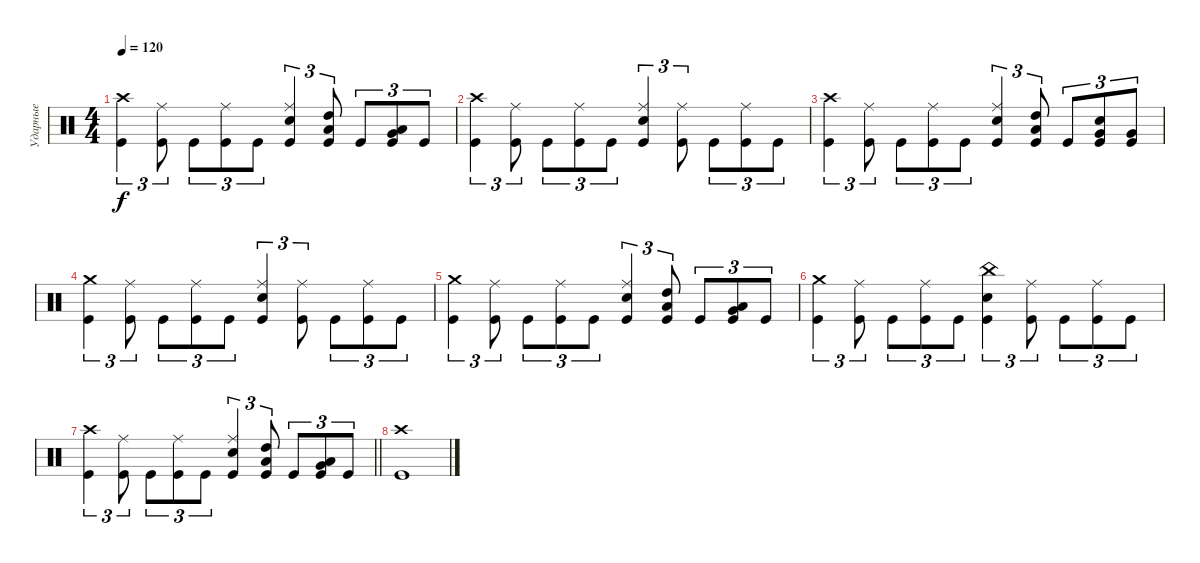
\track ("Ударные" "Ударные") {instrument percussion}
\staff {score}
\articulation defaults
\ts (4 4)
\tempo 120
\clef neutral
\ks c
("Crash high (hit)" "Kick (hit)").4{tu (3 2) dy f} ("Ride (middle)" "Kick (hit)").8{tu (3 2)} "Kick (hit)".8{tu (3 2)} ("Ride (middle)" "Kick (hit)").8{tu (3 2)} "Kick (hit)".8{tu (3 2)} ("Ride (middle)" "Electric Snare (hit)" "Kick (hit)").4{tu (3 2)} ("Low Tom (hit)" "High Tom (hit)" "Kick (hit)").8{tu (3 2)} "Kick (hit)".8{tu (3 2)} ("Very Low Tom (hit)" "Low Tom (hit)" "Kick (hit)").8{tu (3 2)} "Kick (hit)".8{tu (3 2)} |
("Crash high (hit)" "Kick (hit)").4{tu (3 2)} ("Ride (middle)" "Kick (hit)").8{tu (3 2)} "Kick (hit)".8{tu (3 2)} ("Ride (middle)" "Kick (hit)").8{tu (3 2)} "Kick (hit)".8{tu (3 2)} ("Ride (middle)" "Electric Snare (hit)" "Kick (hit)").4{tu (3 2)} ("Ride (middle)" "Kick (hit)").8{tu (3 2)} "Kick (hit)".8{tu (3 2)} ("Ride (middle)" "Kick (hit)").8{tu (3 2)} "Kick (hit)".8{tu (3 2)} |
("Crash high (hit)" "Kick (hit)").4{tu (3 2)} ("Ride (middle)" "Kick (hit)").8{tu (3 2)} "Kick (hit)".8{tu (3 2)} ("Ride (middle)" "Kick (hit)").8{tu (3 2)} "Kick (hit)".8{tu (3 2)} ("Ride (middle)" "Electric Snare (hit)" "Kick (hit)").4{tu (3 2)} ("Low Tom (hit)" "High Tom (hit)" "Kick (hit)").8{tu (3 2)} "Kick (hit)".8{tu (3 2)} ("Very Low Tom (hit)" "Electric Snare (hit)" "Kick (hit)").8{tu (3 2)} ("Very Low Tom (hit)" "Kick (hit)").8{tu (3 2)} |
("Crash medium (hit)" "Kick (hit)").4{tu (3 2)} ("Ride (middle)" "Kick (hit)").8{tu (3 2)} "Kick (hit)".8{tu (3 2)} ("Ride (middle)" "Kick (hit)").8{tu (3 2)} "Kick (hit)".8{tu (3 2)} ("Ride (middle)" "Electric Snare (hit)" "Kick (hit)").4{tu (3 2)} ("Ride (middle)" "Kick (hit)").8{tu (3 2)} "Kick (hit)".8{tu (3 2)} ("Ride (middle)" "Kick (hit)").8{tu (3 2)} "Kick (hit)".8{tu (3 2)} |
("Crash medium (hit)" "Kick (hit)").4{tu (3 2)} ("Ride (middle)" "Kick (hit)").8{tu (3 2)} "Kick (hit)".8{tu (3 2)} ("Ride (middle)" "Kick (hit)").8{tu (3 2)} "Kick (hit)".8{tu (3 2)} ("Ride (middle)" "Electric Snare (hit)" "Kick (hit)").4{tu (3 2)} ("Low Tom (hit)" "High Tom (hit)" "Kick (hit)").8{tu (3 2)} "Kick (hit)".8{tu (3 2)} ("Very Low Tom (hit)" "Low Tom (hit)" "Kick (hit)").8{tu (3 2)} "Kick (hit)".8{tu (3 2)} |
("Crash medium (hit)" "Kick (hit)").4{tu (3 2)} ("Ride (middle)" "Kick (hit)").8{tu (3 2)} "Kick (hit)".8{tu (3 2)} ("Ride (middle)" "Kick (hit)").8{tu (3 2)} "Kick (hit)".8{tu (3 2)} ("China (hit)" "Electric Snare (hit)" "Kick (hit)").4{tu (3 2)} ("Ride (middle)" "Kick (hit)").8{tu (3 2)} "Kick (hit)".8{tu (3 2)} ("Ride (middle)" "Kick (hit)").8{tu (3 2)} "Kick (hit)".8{tu (3 2)} |
\barLineRight lightlight
("Crash high (hit)" "Kick (hit)").4{tu (3 2)} ("Ride (middle)" "Kick (hit)").8{tu (3 2)} "Kick (hit)".8{tu (3 2)} ("Ride (middle)" "Kick (hit)").8{tu (3 2)} "Kick (hit)".8{tu (3 2)} ("Ride (middle)" "Electric Snare (hit)" "Kick (hit)").4{tu (3 2)} ("Low Tom (hit)" "High Tom (hit)" "Kick (hit)").8{tu (3 2)} "Kick (hit)".8{tu (3 2)} ("Very Low Tom (hit)" "Low Tom (hit)" "Kick (hit)").8{tu (3 2)} "Kick (hit)".8{tu (3 2)} |
\section ("" " ")
("Crash high (hit)" "Kick (hit)").1
